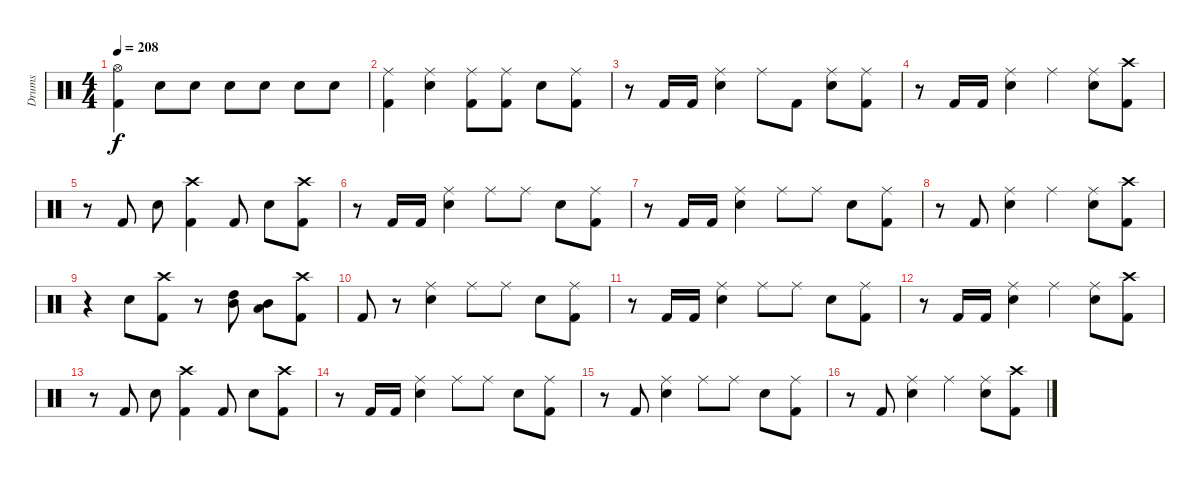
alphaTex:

\track ("Drums" "Drums") {instrument percussion}
\staff {score}
\articulation defaults
\ts (4 4)
\tempo 208
\clef neutral
\ks c
("Hi-Hat (open)" "Kick (hit) 2").4{dy f} "Electric Snare (hit)".8 "Electric Snare (hit)".8 "Electric Snare (hit)".8 "Electric Snare (hit)".8 "Electric Snare (hit)".8 "Electric Snare (hit)".8 |
("Ride (middle)" "Kick (hit) 2").4 ("Ride (middle)" "Electric Snare (hit)").4 ("Ride (middle)" "Kick (hit) 2").8 ("Ride (middle)" "Kick (hit) 2").8 "Electric Snare (hit)".8 ("Ride (middle)" "Kick (hit) 2").8 |
r.8 "Kick (hit) 2".16 "Kick (hit) 2".16 ("Ride (middle)" "Electric Snare (hit)").4 "Ride (middle)".8 "Kick (hit) 2".8 ("Ride (middle)" "Electric Snare (hit)").8 ("Ride (middle)" "Kick (hit) 2").8 |
r.8 "Kick (hit) 2".16 "Kick (hit) 2".16 ("Ride (middle)" "Electric Snare (hit)").4 "Ride (middle)".4 ("Ride (middle)" "Electric Snare (hit)").8 ("Crash high (hit)" "Kick (hit) 2").8 |
r.8 "Kick (hit) 2".8 "Electric Snare (hit)".8 ("Crash high (hit)" "Kick (hit) 2").4 "Kick (hit) 2".8 "Electric Snare (hit)".8 ("Crash high (hit)" "Kick (hit) 2").8 |
r.8 "Kick (hit) 2".16 "Kick (hit) 2".16 ("Ride (middle)" "Electric Snare (hit)").4 "Ride (middle)".8 "Ride (middle)".8 "Electric Snare (hit)".8 ("Ride (middle)" "Kick (hit) 2").8 |
r.8 "Kick (hit) 2".16 "Kick (hit) 2".16 ("Ride (middle)" "Electric Snare (hit)").4 "Ride (middle)".8 "Ride (middle)".8 "Electric Snare (hit)".8 ("Ride (middle)" "Kick (hit) 2").8 |
r.8 "Kick (hit) 2".8 ("Ride (middle)" "Electric Snare (hit)").4 "Ride (middle)".4 ("Ride (middle)" "Electric Snare (hit)").8 ("Crash high (hit)" "Kick (hit) 2").8 |
r.4 "Electric Snare (hit)".8 ("Crash high (hit)" "Kick (hit) 2").8 r.8 ("High Tom (hit)" "Mid Tom (hit)").8 ("Mid Tom (hit)" "Low Tom (hit)").8 ("Crash high (hit)" "Kick (hit) 2").8 |
"Kick (hit) 2".8 r.8 ("Ride (middle)" "Electric Snare (hit)").4 "Ride (middle)".8 "Ride (middle)".8 "Electric Snare (hit)".8 ("Ride (middle)" "Kick (hit) 2").8 |
r.8 "Kick (hit) 2".16 "Kick (hit) 2".16 ("Ride (middle)" "Electric Snare (hit)").4 "Ride (middle)".8 "Ride (middle)".8 "Electric Snare (hit)".8 ("Ride (middle)" "Kick (hit) 2").8 |
r.8 "Kick (hit) 2".16 "Kick (hit) 2".16 ("Ride (middle)" "Electric Snare (hit)").4 "Ride (middle)".4 ("Ride (middle)" "Electric Snare (hit)").8 ("Crash high (hit)" "Kick (hit) 2").8 |
r.8 "Kick (hit) 2".8 "Electric Snare (hit)".8 ("Crash high (hit)" "Kick (hit) 2").4 "Kick (hit) 2".8 "Electric Snare (hit)".8 ("Crash high (hit)" "Kick (hit) 2").8 |
r.8 "Kick (hit) 2".16 "Kick (hit) 2".16 ("Ride (middle)" "Electric Snare (hit)").4 "Ride (middle)".8 "Ride (middle)".8 "Electric Snare (hit)".8 ("Ride (middle)" "Kick (hit) 2").8 |
r.8 "Kick (hit) 2".8 ("Ride (middle)" "Electric Snare (hit)").4 "Ride (middle)".8 "Ride (middle)".8 "Electric Snare (hit)".8 ("Ride (middle)" "Kick (hit) 2").8 |
r.8 "Kick (hit) 2".8 ("Ride (middle)" "Electric Snare (hit)").4 "Ride (middle)".4 ("Ride (middle)" "Electric Snare (hit)").8 ("Crash high (hit)" "Kick (hit) 2").8
